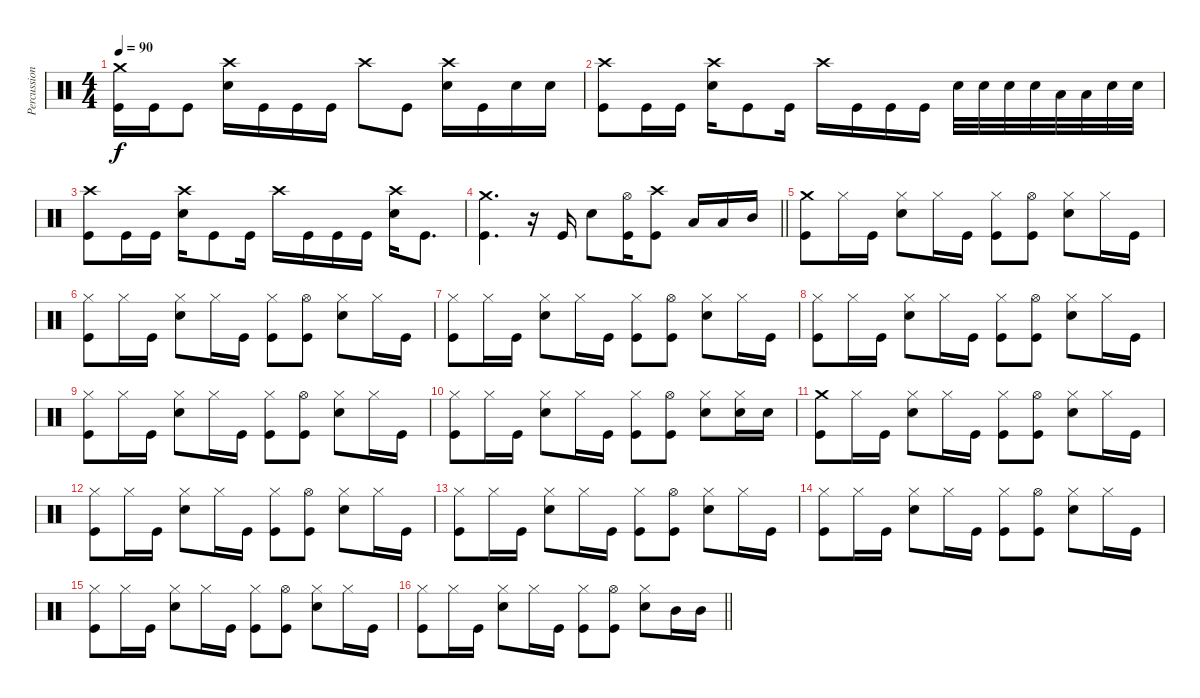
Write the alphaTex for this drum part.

\track ("Percussion" "Percussion") {instrument percussion}
\staff {score}
\articulation defaults
\ts (4 4)
\tempo 90
\clef neutral
\ks c
("Crash medium (hit)" "Kick (hit)").16{dy f} "Kick (hit)".16 "Kick (hit)".8 ("Crash high (hit)" "Electric Snare (hit)").16 "Kick (hit)".16 "Kick (hit)".16 "Kick (hit)".16 "Crash high (hit)".8 "Kick (hit)".8 ("Crash high (hit)" "Electric Snare (hit)").16 "Kick (hit)".16 "Electric Snare (hit)".16 "Electric Snare (hit)".16 |
("Crash high (hit)" "Kick (hit)").8 "Kick (hit)".16 "Kick (hit)".16 ("Crash high (hit)" "Electric Snare (hit)").16 "Kick (hit)".8 "Kick (hit)".16 "Crash high (hit)".16 "Kick (hit)".16 "Kick (hit)".16 "Kick (hit)".16 "Electric Snare (hit)".32 "Electric Snare (hit)".32 "Electric Snare (hit)".32 "Electric Snare (hit)".32 "Low Tom (hit)".32 "Low Tom (hit)".32 "Electric Snare (hit)".32 "Electric Snare (hit)".32 |
("Crash high (hit)" "Kick (hit)").8 "Kick (hit)".16 "Kick (hit)".16 ("Crash high (hit)" "Electric Snare (hit)").16 "Kick (hit)".8 "Kick (hit)".16 "Crash high (hit)".16 "Kick (hit)".16 "Kick (hit)".16 "Kick (hit)".16 ("Crash high (hit)" "Electric Snare (hit)").16 "Kick (hit)".8{d} |
\barLineRight lightlight
("Crash medium (hit)" "Kick (hit)").4{d} r.16 "Kick (hit)".16 "Electric Snare (hit)".8 ("Hi-Hat (open)" "Kick (hit)").16 ("Crash high (hit)" "Kick (hit)").8 "Low Tom (hit)".16 "Low Tom (hit)".16 "Mid Tom (hit)".16 |
("Crash medium (hit)" "Kick (hit)").8 "Hi-Hat (closed)".16 "Kick (hit)".16 ("Hi-Hat (closed)" "Electric Snare (hit)").8 "Hi-Hat (closed)".16 "Kick (hit)".16 ("Hi-Hat (closed)" "Kick (hit)").8 ("Hi-Hat (open)" "Kick (hit)").8 ("Hi-Hat (closed)" "Electric Snare (hit)").8 "Hi-Hat (closed)".16 "Kick (hit)".16 |
("Hi-Hat (closed)" "Kick (hit)").8 "Hi-Hat (closed)".16 "Kick (hit)".16 ("Hi-Hat (closed)" "Electric Snare (hit)").8 "Hi-Hat (closed)".16 "Kick (hit)".16 ("Hi-Hat (closed)" "Kick (hit)").8 ("Hi-Hat (open)" "Kick (hit)").8 ("Hi-Hat (closed)" "Electric Snare (hit)").8 "Hi-Hat (closed)".16 "Kick (hit)".16 |
("Hi-Hat (closed)" "Kick (hit)").8 "Hi-Hat (closed)".16 "Kick (hit)".16 ("Hi-Hat (closed)" "Electric Snare (hit)").8 "Hi-Hat (closed)".16 "Kick (hit)".16 ("Hi-Hat (closed)" "Kick (hit)").8 ("Hi-Hat (open)" "Kick (hit)").8 ("Hi-Hat (closed)" "Electric Snare (hit)").8 "Hi-Hat (closed)".16 "Kick (hit)".16 |
("Hi-Hat (closed)" "Kick (hit)").8 "Hi-Hat (closed)".16 "Kick (hit)".16 ("Hi-Hat (closed)" "Electric Snare (hit)").8 "Hi-Hat (closed)".16 "Kick (hit)".16 ("Hi-Hat (closed)" "Kick (hit)").8 ("Hi-Hat (open)" "Kick (hit)").8 ("Hi-Hat (closed)" "Electric Snare (hit)").8 "Hi-Hat (closed)".16 "Kick (hit)".16 |
("Hi-Hat (closed)" "Kick (hit)").8 "Hi-Hat (closed)".16 "Kick (hit)".16 ("Hi-Hat (closed)" "Electric Snare (hit)").8 "Hi-Hat (closed)".16 "Kick (hit)".16 ("Hi-Hat (closed)" "Kick (hit)").8 ("Hi-Hat (open)" "Kick (hit)").8 ("Hi-Hat (closed)" "Electric Snare (hit)").8 "Hi-Hat (closed)".16 "Kick (hit)".16 |
("Hi-Hat (closed)" "Kick (hit)").8 "Hi-Hat (closed)".16 "Kick (hit)".16 ("Hi-Hat (closed)" "Electric Snare (hit)").8 "Hi-Hat (closed)".16 "Kick (hit)".16 ("Hi-Hat (closed)" "Kick (hit)").8 ("Hi-Hat (open)" "Kick (hit)").8 ("Hi-Hat (closed)" "Electric Snare (hit)").8 ("Hi-Hat (closed)" "Electric Snare (hit)").16 "Electric Snare (hit)".16 |
("Crash medium (hit)" "Kick (hit)").8 "Hi-Hat (closed)".16 "Kick (hit)".16 ("Hi-Hat (closed)" "Electric Snare (hit)").8 "Hi-Hat (closed)".16 "Kick (hit)".16 ("Hi-Hat (closed)" "Kick (hit)").8 ("Hi-Hat (open)" "Kick (hit)").8 ("Hi-Hat (closed)" "Electric Snare (hit)").8 "Hi-Hat (closed)".16 "Kick (hit)".16 |
("Hi-Hat (closed)" "Kick (hit)").8 "Hi-Hat (closed)".16 "Kick (hit)".16 ("Hi-Hat (closed)" "Electric Snare (hit)").8 "Hi-Hat (closed)".16 "Kick (hit)".16 ("Hi-Hat (closed)" "Kick (hit)").8 ("Hi-Hat (open)" "Kick (hit)").8 ("Hi-Hat (closed)" "Electric Snare (hit)").8 "Hi-Hat (closed)".16 "Kick (hit)".16 |
("Hi-Hat (closed)" "Kick (hit)").8 "Hi-Hat (closed)".16 "Kick (hit)".16 ("Hi-Hat (closed)" "Electric Snare (hit)").8 "Hi-Hat (closed)".16 "Kick (hit)".16 ("Hi-Hat (closed)" "Kick (hit)").8 ("Hi-Hat (open)" "Kick (hit)").8 ("Hi-Hat (closed)" "Electric Snare (hit)").8 "Hi-Hat (closed)".16 "Kick (hit)".16 |
("Hi-Hat (closed)" "Kick (hit)").8 "Hi-Hat (closed)".16 "Kick (hit)".16 ("Hi-Hat (closed)" "Electric Snare (hit)").8 "Hi-Hat (closed)".16 "Kick (hit)".16 ("Hi-Hat (closed)" "Kick (hit)").8 ("Hi-Hat (open)" "Kick (hit)").8 ("Hi-Hat (closed)" "Electric Snare (hit)").8 "Hi-Hat (closed)".16 "Kick (hit)".16 |
("Hi-Hat (closed)" "Kick (hit)").8 "Hi-Hat (closed)".16 "Kick (hit)".16 ("Hi-Hat (closed)" "Electric Snare (hit)").8 "Hi-Hat (closed)".16 "Kick (hit)".16 ("Hi-Hat (closed)" "Kick (hit)").8 ("Hi-Hat (open)" "Kick (hit)").8 ("Hi-Hat (closed)" "Electric Snare (hit)").8 "Hi-Hat (closed)".16 "Kick (hit)".16 |
\barLineRight lightlight
("Hi-Hat (closed)" "Kick (hit)").8 "Hi-Hat (closed)".16 "Kick (hit)".16 ("Hi-Hat (closed)" "Electric Snare (hit)").8 "Hi-Hat (closed)".16 "Kick (hit)".16 ("Hi-Hat (closed)" "Kick (hit)").8 ("Hi-Hat (open)" "Kick (hit)").8 ("Hi-Hat (closed)" "Electric Snare (hit)").8 "Mid Tom (hit)".16 "Mid Tom (hit)".16
